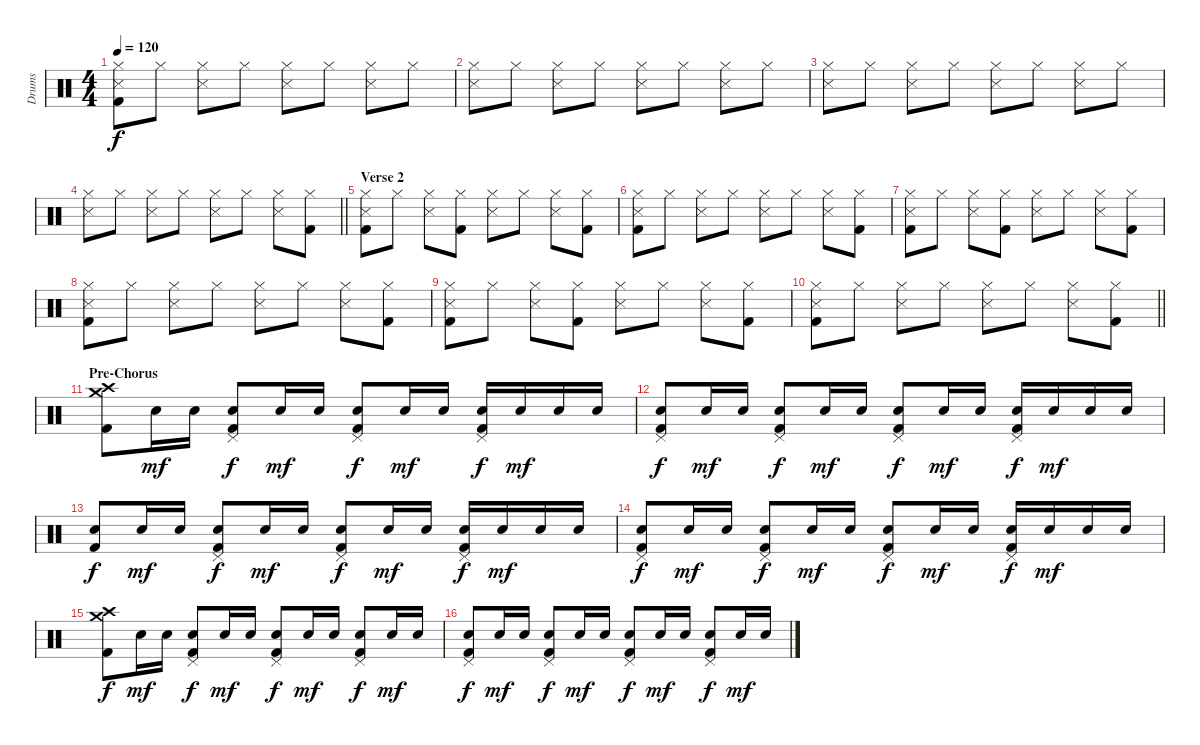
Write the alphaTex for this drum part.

\track ("Drums" "Drums") {instrument percussion}
\staff {score}
\articulation defaults
\ts (4 4)
\tempo 120
\clef neutral
\ks c
("Hi-Hat (closed)" "Snare (side stick) 3" "Kick (hit) 2").8{dy f} "Hi-Hat (closed)".8 ("Hi-Hat (closed)" "Snare (side stick) 3").8 "Hi-Hat (closed)".8 ("Hi-Hat (closed)" "Snare (side stick) 3").8 "Hi-Hat (closed)".8 ("Hi-Hat (closed)" "Snare (side stick) 3").8 "Hi-Hat (closed)".8 |
("Hi-Hat (closed)" "Snare (side stick) 3").8 "Hi-Hat (closed)".8 ("Hi-Hat (closed)" "Snare (side stick) 3").8 "Hi-Hat (closed)".8 ("Hi-Hat (closed)" "Snare (side stick) 3").8 "Hi-Hat (closed)".8 ("Hi-Hat (closed)" "Snare (side stick) 3").8 "Hi-Hat (closed)".8 |
("Hi-Hat (closed)" "Snare (side stick) 3").8 "Hi-Hat (closed)".8 ("Hi-Hat (closed)" "Snare (side stick) 3").8 "Hi-Hat (closed)".8 ("Hi-Hat (closed)" "Snare (side stick) 3").8 "Hi-Hat (closed)".8 ("Hi-Hat (closed)" "Snare (side stick) 3").8 "Hi-Hat (closed)".8 |
\barLineRight lightlight
("Hi-Hat (closed)" "Snare (side stick) 3").8 "Hi-Hat (closed)".8 ("Hi-Hat (closed)" "Snare (side stick) 3").8 "Hi-Hat (closed)".8 ("Hi-Hat (closed)" "Snare (side stick) 3").8 "Hi-Hat (closed)".8 ("Hi-Hat (closed)" "Snare (side stick) 3").8 ("Hi-Hat (closed)" "Kick (hit) 2").8 |
\section ("" "Verse 2")
("Hi-Hat (closed)" "Snare (side stick) 3" "Kick (hit) 2").8 "Hi-Hat (closed)".8 ("Hi-Hat (closed)" "Snare (side stick) 3").8 ("Hi-Hat (closed)" "Kick (hit) 2").8 ("Hi-Hat (closed)" "Snare (side stick) 3").8 "Hi-Hat (closed)".8 ("Hi-Hat (closed)" "Snare (side stick) 3").8 ("Hi-Hat (closed)" "Kick (hit) 2").8 |
("Hi-Hat (closed)" "Snare (side stick) 3" "Kick (hit) 2").8 "Hi-Hat (closed)".8 ("Hi-Hat (closed)" "Snare (side stick) 3").8 "Hi-Hat (closed)".8 ("Hi-Hat (closed)" "Snare (side stick) 3").8 "Hi-Hat (closed)".8 ("Hi-Hat (closed)" "Snare (side stick) 3").8 ("Hi-Hat (closed)" "Kick (hit) 2").8 |
("Hi-Hat (closed)" "Snare (side stick) 3" "Kick (hit) 2").8 "Hi-Hat (closed)".8 ("Hi-Hat (closed)" "Snare (side stick) 3").8 ("Hi-Hat (closed)" "Kick (hit) 2").8 ("Hi-Hat (closed)" "Snare (side stick) 3").8 "Hi-Hat (closed)".8 ("Hi-Hat (closed)" "Snare (side stick) 3").8 ("Hi-Hat (closed)" "Kick (hit) 2").8 |
("Hi-Hat (closed)" "Snare (side stick) 3" "Kick (hit) 2").8 "Hi-Hat (closed)".8 ("Hi-Hat (closed)" "Snare (side stick) 3").8 "Hi-Hat (closed)".8 ("Hi-Hat (closed)" "Snare (side stick) 3").8 "Hi-Hat (closed)".8 ("Hi-Hat (closed)" "Snare (side stick) 3").8 ("Hi-Hat (closed)" "Kick (hit) 2").8 |
("Hi-Hat (closed)" "Snare (side stick) 3" "Kick (hit) 2").8 "Hi-Hat (closed)".8 ("Hi-Hat (closed)" "Snare (side stick) 3").8 ("Hi-Hat (closed)" "Kick (hit) 2").8 ("Hi-Hat (closed)" "Snare (side stick) 3").8 "Hi-Hat (closed)".8 ("Hi-Hat (closed)" "Snare (side stick) 3").8 ("Hi-Hat (closed)" "Kick (hit) 2").8 |
\barLineRight lightlight
("Hi-Hat (closed)" "Snare (side stick) 3" "Kick (hit) 2").8 "Hi-Hat (closed)".8 ("Hi-Hat (closed)" "Snare (side stick) 3").8 "Hi-Hat (closed)".8 ("Hi-Hat (closed)" "Snare (side stick) 3").8 "Hi-Hat (closed)".8 ("Hi-Hat (closed)" "Snare (side stick) 3").8 ("Hi-Hat (closed)" "Kick (hit) 2").8 |
\section ("" "Pre-Chorus")
("Crash high (hit)" "Crash medium (hit)" "Kick (hit) 2").8 "Electric Snare (hit)".16{dy mf} "Electric Snare (hit)".16 ("Pedal Hi-Hat (hit)" "Electric Snare (hit)" "Kick (hit) 2").8{dy f} "Electric Snare (hit)".16{dy mf} "Electric Snare (hit)".16 ("Pedal Hi-Hat (hit)" "Electric Snare (hit)" "Kick (hit) 2").8{dy f} "Electric Snare (hit)".16{dy mf} "Electric Snare (hit)".16 ("Pedal Hi-Hat (hit)" "Electric Snare (hit)" "Kick (hit) 2").16{dy f} "Electric Snare (hit)".16{dy mf} "Electric Snare (hit)".16 "Electric Snare (hit)".16 |
("Pedal Hi-Hat (hit)" "Electric Snare (hit)" "Kick (hit) 2").8{dy f} "Electric Snare (hit)".16{dy mf} "Electric Snare (hit)".16 ("Pedal Hi-Hat (hit)" "Electric Snare (hit)" "Kick (hit) 2").8{dy f} "Electric Snare (hit)".16{dy mf} "Electric Snare (hit)".16 ("Pedal Hi-Hat (hit)" "Electric Snare (hit)" "Kick (hit) 2").8{dy f} "Electric Snare (hit)".16{dy mf} "Electric Snare (hit)".16 ("Pedal Hi-Hat (hit)" "Electric Snare (hit)" "Kick (hit) 2").16{dy f} "Electric Snare (hit)".16{dy mf} "Electric Snare (hit)".16 "Electric Snare (hit)".16 |
("Electric Snare (hit)" "Kick (hit) 2").8{dy f} "Electric Snare (hit)".16{dy mf} "Electric Snare (hit)".16 ("Pedal Hi-Hat (hit)" "Electric Snare (hit)" "Kick (hit) 2").8{dy f} "Electric Snare (hit)".16{dy mf} "Electric Snare (hit)".16 ("Pedal Hi-Hat (hit)" "Electric Snare (hit)" "Kick (hit) 2").8{dy f} "Electric Snare (hit)".16{dy mf} "Electric Snare (hit)".16 ("Pedal Hi-Hat (hit)" "Electric Snare (hit)" "Kick (hit) 2").16{dy f} "Electric Snare (hit)".16{dy mf} "Electric Snare (hit)".16 "Electric Snare (hit)".16 |
("Pedal Hi-Hat (hit)" "Electric Snare (hit)" "Kick (hit) 2").8{dy f} "Electric Snare (hit)".16{dy mf} "Electric Snare (hit)".16 ("Pedal Hi-Hat (hit)" "Electric Snare (hit)" "Kick (hit) 2").8{dy f} "Electric Snare (hit)".16{dy mf} "Electric Snare (hit)".16 ("Pedal Hi-Hat (hit)" "Electric Snare (hit)" "Kick (hit) 2").8{dy f} "Electric Snare (hit)".16{dy mf} "Electric Snare (hit)".16 ("Pedal Hi-Hat (hit)" "Electric Snare (hit)" "Kick (hit) 2").16{dy f} "Electric Snare (hit)".16{dy mf} "Electric Snare (hit)".16 "Electric Snare (hit)".16 |
("Crash medium (hit)" "Crash high (hit)" "Kick (hit) 2").8{dy f} "Electric Snare (hit)".16{dy mf} "Electric Snare (hit)".16 ("Pedal Hi-Hat (hit)" "Electric Snare (hit)" "Kick (hit) 2").8{dy f} "Electric Snare (hit)".16{dy mf} "Electric Snare (hit)".16 ("Pedal Hi-Hat (hit)" "Electric Snare (hit)" "Kick (hit) 2").8{dy f} "Electric Snare (hit)".16{dy mf} "Electric Snare (hit)".16 ("Pedal Hi-Hat (hit)" "Electric Snare (hit)" "Kick (hit) 2").8{dy f} "Electric Snare (hit)".16{dy mf} "Electric Snare (hit)".16 |
("Pedal Hi-Hat (hit)" "Electric Snare (hit)" "Kick (hit) 2").8{dy f} "Electric Snare (hit)".16{dy mf} "Electric Snare (hit)".16 ("Pedal Hi-Hat (hit)" "Electric Snare (hit)" "Kick (hit) 2").8{dy f} "Electric Snare (hit)".16{dy mf} "Electric Snare (hit)".16 ("Pedal Hi-Hat (hit)" "Electric Snare (hit)" "Kick (hit) 2").8{dy f} "Electric Snare (hit)".16{dy mf} "Electric Snare (hit)".16 ("Pedal Hi-Hat (hit)" "Electric Snare (hit)" "Kick (hit) 2").8{dy f} "Electric Snare (hit)".16{dy mf} "Electric Snare (hit)".16
